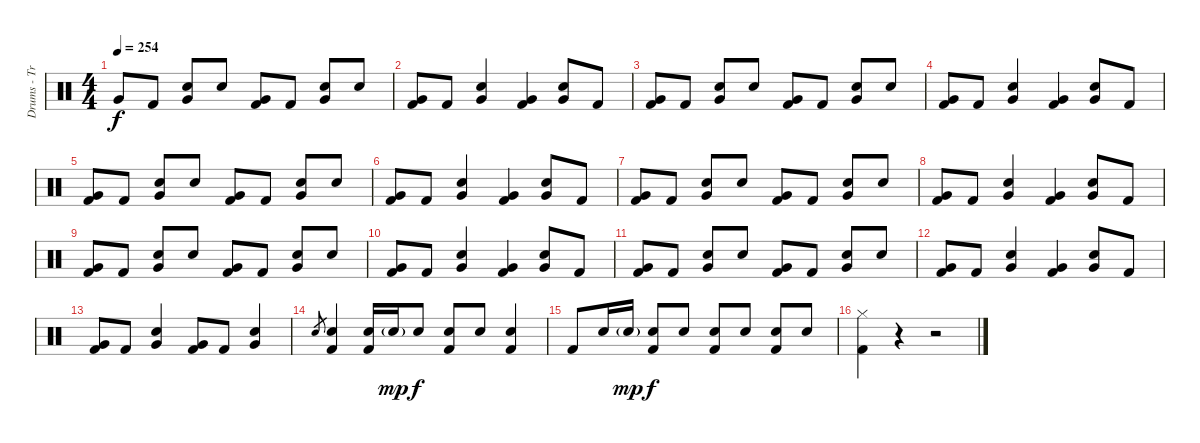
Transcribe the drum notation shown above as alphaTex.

\track ("Drums - Travis Barker" "Drums - Tr") {instrument percussion}
\staff {score}
\articulation defaults
\ts (4 4)
\tempo 254
\clef neutral
\ks c "Very Low Tom (hit)".8{dy f} "Kick (hit) 2".8
("Very Low Tom (hit)" "Electric Snare (hit)").8 "Electric Snare (hit)".8 ("Very Low Tom (hit)" "Kick (hit) 2").8 "Kick (hit) 2".8 ("Very Low Tom (hit)" "Electric Snare (hit)").8 "Electric Snare (hit)".8 |
("Very Low Tom (hit)" "Kick (hit) 2").8 "Kick (hit) 2".8 ("Very Low Tom (hit)" "Electric Snare (hit)").4 ("Very Low Tom (hit)" "Kick (hit) 2").4 ("Very Low Tom (hit)" "Electric Snare (hit)").8 "Kick (hit) 2".8 |
("Very Low Tom (hit)" "Kick (hit) 2").8 "Kick (hit) 2".8 ("Very Low Tom (hit)" "Electric Snare (hit)").8 "Electric Snare (hit)".8 ("Very Low Tom (hit)" "Kick (hit) 2").8 "Kick (hit) 2".8 ("Very Low Tom (hit)" "Electric Snare (hit)").8 "Electric Snare (hit)".8 |
("Very Low Tom (hit)" "Kick (hit) 2").8 "Kick (hit) 2".8 ("Very Low Tom (hit)" "Electric Snare (hit)").4 ("Very Low Tom (hit)" "Kick (hit) 2").4 ("Very Low Tom (hit)" "Electric Snare (hit)").8 "Kick (hit) 2".8 |
("Very Low Tom (hit)" "Kick (hit) 2").8 "Kick (hit) 2".8 ("Very Low Tom (hit)" "Electric Snare (hit)").8 "Electric Snare (hit)".8 ("Very Low Tom (hit)" "Kick (hit) 2").8 "Kick (hit) 2".8 ("Very Low Tom (hit)" "Electric Snare (hit)").8 "Electric Snare (hit)".8 |
("Very Low Tom (hit)" "Kick (hit) 2").8 "Kick (hit) 2".8 ("Very Low Tom (hit)" "Electric Snare (hit)").4 ("Very Low Tom (hit)" "Kick (hit) 2").4 ("Very Low Tom (hit)" "Electric Snare (hit)").8 "Kick (hit) 2".8 |
("Very Low Tom (hit)" "Kick (hit) 2").8 "Kick (hit) 2".8 ("Very Low Tom (hit)" "Electric Snare (hit)").8 "Electric Snare (hit)".8 ("Very Low Tom (hit)" "Kick (hit) 2").8 "Kick (hit) 2".8 ("Very Low Tom (hit)" "Electric Snare (hit)").8 "Electric Snare (hit)".8 |
("Very Low Tom (hit)" "Kick (hit) 2").8 "Kick (hit) 2".8 ("Very Low Tom (hit)" "Electric Snare (hit)").4 ("Very Low Tom (hit)" "Kick (hit) 2").4 ("Very Low Tom (hit)" "Electric Snare (hit)").8 "Kick (hit) 2".8 |
("Very Low Tom (hit)" "Kick (hit) 2").8 "Kick (hit) 2".8 ("Very Low Tom (hit)" "Electric Snare (hit)").8 "Electric Snare (hit)".8 ("Very Low Tom (hit)" "Kick (hit) 2").8 "Kick (hit) 2".8 ("Very Low Tom (hit)" "Electric Snare (hit)").8 "Electric Snare (hit)".8 |
("Very Low Tom (hit)" "Kick (hit) 2").8 "Kick (hit) 2".8 ("Very Low Tom (hit)" "Electric Snare (hit)").4 ("Very Low Tom (hit)" "Kick (hit) 2").4 ("Very Low Tom (hit)" "Electric Snare (hit)").8 "Kick (hit) 2".8 |
("Very Low Tom (hit)" "Kick (hit) 2").8 "Kick (hit) 2".8 ("Very Low Tom (hit)" "Electric Snare (hit)").8 "Electric Snare (hit)".8 ("Very Low Tom (hit)" "Kick (hit) 2").8 "Kick (hit) 2".8 ("Very Low Tom (hit)" "Electric Snare (hit)").8 "Electric Snare (hit)".8 |
("Very Low Tom (hit)" "Kick (hit) 2").8 "Kick (hit) 2".8 ("Very Low Tom (hit)" "Electric Snare (hit)").4 ("Very Low Tom (hit)" "Kick (hit) 2").4 ("Very Low Tom (hit)" "Electric Snare (hit)").8 "Kick (hit) 2".8 |
("Very Low Tom (hit)" "Kick (hit) 2").8 "Kick (hit) 2".8 ("Very Low Tom (hit)" "Electric Snare (hit)").4 ("Very Low Tom (hit)" "Kick (hit) 2").8 "Kick (hit) 2".8 ("Very Low Tom (hit)" "Electric Snare (hit)").4 |
"Electric Snare (hit)".8{gr} ("Electric Snare (hit)" "Kick (hit) 2").4 ("Electric Snare (hit)" "Kick (hit) 2").16 "Electric Snare (hit)"{g}.16{dy mp} "Electric Snare (hit)".8{dy f} ("Electric Snare (hit)" "Kick (hit) 2").8 "Electric Snare (hit)".8 ("Electric Snare (hit)" "Kick (hit) 2").4 |
"Kick (hit) 2".8 "Electric Snare (hit)".16 "Electric Snare (hit)"{g}.16{dy mp} ("Electric Snare (hit)" "Kick (hit) 2").8{dy f} "Electric Snare (hit)".8 ("Electric Snare (hit)" "Kick (hit) 2").8 "Electric Snare (hit)".8 ("Electric Snare (hit)" "Kick (hit) 2").8 "Electric Snare (hit)".8 |
("Hi-Hat (closed)" "Kick (hit) 2").4 r.4 r.2
